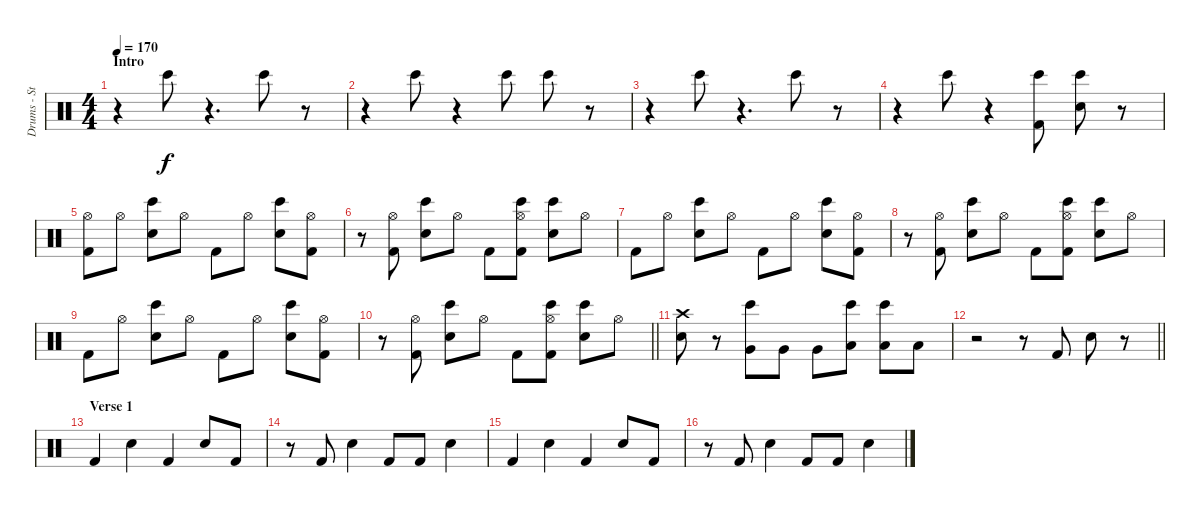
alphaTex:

\track ("Drums - Steeve" "Drums - St") {instrument percussion}
\staff {score}
\articulation defaults
\ts (4 4)
\section ("" "Intro")
\tempo 170
\clef neutral
\ks c
r.4{dy f} "Bongo High (hit)".8 r.4{d} "Bongo High (hit)".8 r.8 |
r.4 "Bongo High (hit)".8 r.4 "Bongo High (hit)".8 "Bongo High (hit)".8 r.8 |
r.4 "Bongo High (hit)".8 r.4{d} "Bongo High (hit)".8 r.8 |
r.4 "Bongo High (hit)".8 r.4 ("Bongo High (hit)" "Kick (hit) 2").8 ("Bongo High (hit)" "Electric Snare (hit)").8 r.8 |
("Hi-Hat (open)" "Kick (hit) 2").8 "Hi-Hat (open)".8 ("Electric Snare (hit)" "Bongo High (hit)").8 "Hi-Hat (open)".8 "Kick (hit) 2".8 "Hi-Hat (open)".8 ("Electric Snare (hit)" "Bongo High (hit)").8 ("Hi-Hat (open)" "Kick (hit) 2").8 |
r.8 ("Hi-Hat (open)" "Kick (hit) 2").8 ("Electric Snare (hit)" "Bongo High (hit)").8 "Hi-Hat (open)".8 "Kick (hit) 2".8 ("Hi-Hat (open)" "Kick (hit) 2" "Bongo High (hit)").8 ("Electric Snare (hit)" "Bongo High (hit)").8 "Hi-Hat (open)".8 |
"Kick (hit) 2".8 "Hi-Hat (open)".8 ("Electric Snare (hit)" "Bongo High (hit)").8 "Hi-Hat (open)".8 "Kick (hit) 2".8 "Hi-Hat (open)".8 ("Electric Snare (hit)" "Bongo High (hit)").8 ("Hi-Hat (open)" "Kick (hit) 2").8 |
r.8 ("Hi-Hat (open)" "Kick (hit) 2").8 ("Electric Snare (hit)" "Bongo High (hit)").8 "Hi-Hat (open)".8 "Kick (hit) 2".8 ("Hi-Hat (open)" "Kick (hit) 2" "Bongo High (hit)").8 ("Electric Snare (hit)" "Bongo High (hit)").8 "Hi-Hat (open)".8 |
"Kick (hit) 2".8 "Hi-Hat (open)".8 ("Electric Snare (hit)" "Bongo High (hit)").8 "Hi-Hat (open)".8 "Kick (hit) 2".8 "Hi-Hat (open)".8 ("Electric Snare (hit)" "Bongo High (hit)").8 ("Hi-Hat (open)" "Kick (hit) 2").8 |
\barLineRight lightlight
r.8 ("Hi-Hat (open)" "Kick (hit) 2").8 ("Electric Snare (hit)" "Bongo High (hit)").8 "Hi-Hat (open)".8 "Kick (hit) 2".8 ("Hi-Hat (open)" "Kick (hit) 2" "Bongo High (hit)").8 ("Electric Snare (hit)" "Bongo High (hit)").8 "Hi-Hat (open)".8 |
("Crash high (hit)" "Electric Snare (hit)").8 r.8 ("Very Low Tom (hit)" "Bongo High (hit)").8 "Very Low Tom (hit)".8 "Very Low Tom (hit)".8 ("Low Floor Tom (hit)" "Bongo High (hit)").8 ("Low Floor Tom (hit)" "Bongo High (hit)").8 "Low Floor Tom (hit)".8 |
\barLineRight lightlight
r.2 r.8 "Kick (hit) 2".8 "Electric Snare (hit)".8 r.8 |
\section ("" "Verse 1")
"Kick (hit) 2".4 "Electric Snare (hit)".4 "Kick (hit) 2".4 "Electric Snare (hit)".8 "Kick (hit) 2".8 |
r.8 "Kick (hit) 2".8 "Electric Snare (hit)".4 "Kick (hit) 2".8 "Kick (hit) 2".8 "Electric Snare (hit)".4 |
"Kick (hit) 2".4 "Electric Snare (hit)".4 "Kick (hit) 2".4 "Electric Snare (hit)".8 "Kick (hit) 2".8 |
r.8 "Kick (hit) 2".8 "Electric Snare (hit)".4 "Kick (hit) 2".8 "Kick (hit) 2".8 "Electric Snare (hit)".4
